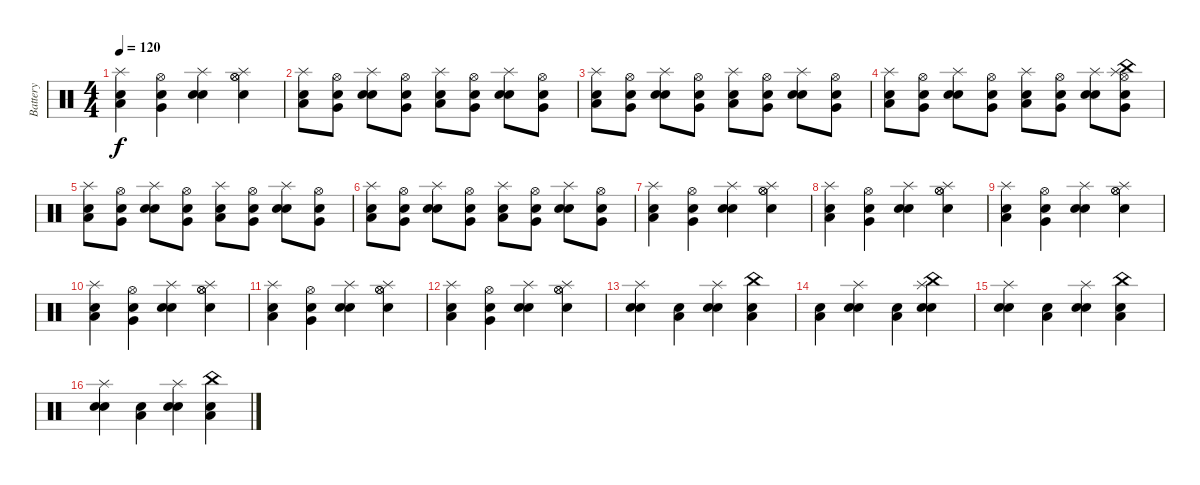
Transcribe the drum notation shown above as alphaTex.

\track ("Battery" "Battery") {instrument percussion}
\staff {score}
\articulation defaults
\ts (4 4)
\tempo 120
\clef neutral
\ks c
("Snare (hit) 2" "Low Floor Tom (hit)" "Splash (hit)").4{dy f} ("Snare (hit) 2" "Very Low Tom (hit)" "Hi-Hat (open)").4 ("Snare (hit) 2" "Electric Snare (hit)" "Splash (hit)").4 ("Snare (hit) 2" "Hi-Hat (open)" "Splash (hit)" "Hi-Hat (open)").4 |
("Snare (hit) 2" "Low Floor Tom (hit)" "Splash (hit)").8 ("Snare (hit) 2" "Very Low Tom (hit)" "Hi-Hat (open)").8 ("Snare (hit) 2" "Electric Snare (hit)" "Splash (hit)").8 ("Snare (hit) 2" "Very Low Tom (hit)" "Hi-Hat (open)").8 ("Snare (hit) 2" "Low Floor Tom (hit)" "Splash (hit)").8 ("Snare (hit) 2" "Very Low Tom (hit)" "Hi-Hat (open)").8 ("Snare (hit) 2" "Electric Snare (hit)" "Splash (hit)").8 ("Snare (hit) 2" "Very Low Tom (hit)" "Hi-Hat (open)").8 |
("Snare (hit) 2" "Low Floor Tom (hit)" "Splash (hit)").8 ("Snare (hit) 2" "Very Low Tom (hit)" "Hi-Hat (open)").8 ("Snare (hit) 2" "Electric Snare (hit)" "Splash (hit)").8 ("Snare (hit) 2" "Very Low Tom (hit)" "Hi-Hat (open)").8 ("Snare (hit) 2" "Low Floor Tom (hit)" "Splash (hit)").8 ("Snare (hit) 2" "Very Low Tom (hit)" "Hi-Hat (open)").8 ("Snare (hit) 2" "Electric Snare (hit)" "Splash (hit)").8 ("Snare (hit) 2" "Very Low Tom (hit)" "Hi-Hat (open)").8 |
("Snare (hit) 2" "Low Floor Tom (hit)" "Splash (hit)").8 ("Snare (hit) 2" "Very Low Tom (hit)" "Hi-Hat (open)").8 ("Snare (hit) 2" "Electric Snare (hit)" "Splash (hit)").8 ("Snare (hit) 2" "Very Low Tom (hit)" "Hi-Hat (open)").8 ("Snare (hit) 2" "Low Floor Tom (hit)" "Splash (hit)").8 ("Snare (hit) 2" "Very Low Tom (hit)" "Hi-Hat (open)").8 ("Snare (hit) 2" "Electric Snare (hit)" "Splash (hit)").8 ("Snare (hit) 2" "Very Low Tom (hit)" "Splash (hit)" "Hi-Hat (open)" "China (hit)").8 |
("Snare (hit) 2" "Low Floor Tom (hit)" "Splash (hit)").8 ("Snare (hit) 2" "Very Low Tom (hit)" "Hi-Hat (open)").8 ("Snare (hit) 2" "Electric Snare (hit)" "Splash (hit)").8 ("Snare (hit) 2" "Very Low Tom (hit)" "Hi-Hat (open)").8 ("Snare (hit) 2" "Low Floor Tom (hit)" "Splash (hit)").8 ("Snare (hit) 2" "Very Low Tom (hit)" "Hi-Hat (open)").8 ("Snare (hit) 2" "Electric Snare (hit)" "Splash (hit)").8 ("Snare (hit) 2" "Very Low Tom (hit)" "Hi-Hat (open)").8 |
("Snare (hit) 2" "Low Floor Tom (hit)" "Splash (hit)").8 ("Snare (hit) 2" "Very Low Tom (hit)" "Hi-Hat (open)").8 ("Snare (hit) 2" "Electric Snare (hit)" "Splash (hit)").8 ("Snare (hit) 2" "Very Low Tom (hit)" "Hi-Hat (open)").8 ("Snare (hit) 2" "Low Floor Tom (hit)" "Splash (hit)").8 ("Snare (hit) 2" "Very Low Tom (hit)" "Hi-Hat (open)").8 ("Snare (hit) 2" "Electric Snare (hit)" "Splash (hit)").8 ("Snare (hit) 2" "Very Low Tom (hit)" "Hi-Hat (open)").8 |
("Snare (hit) 2" "Low Floor Tom (hit)" "Splash (hit)").4 ("Snare (hit) 2" "Very Low Tom (hit)" "Hi-Hat (open)").4 ("Snare (hit) 2" "Electric Snare (hit)" "Splash (hit)").4 ("Snare (hit) 2" "Hi-Hat (open)" "Splash (hit)" "Hi-Hat (open)").4 |
("Snare (hit) 2" "Low Floor Tom (hit)" "Splash (hit)").4 ("Snare (hit) 2" "Very Low Tom (hit)" "Hi-Hat (open)").4 ("Snare (hit) 2" "Electric Snare (hit)" "Splash (hit)").4 ("Snare (hit) 2" "Hi-Hat (open)" "Splash (hit)" "Hi-Hat (open)").4 |
("Snare (hit) 2" "Low Floor Tom (hit)" "Splash (hit)").4 ("Snare (hit) 2" "Very Low Tom (hit)" "Hi-Hat (open)").4 ("Snare (hit) 2" "Electric Snare (hit)" "Splash (hit)").4 ("Snare (hit) 2" "Hi-Hat (open)" "Splash (hit)" "Hi-Hat (open)").4 |
("Snare (hit) 2" "Low Floor Tom (hit)" "Splash (hit)").4 ("Snare (hit) 2" "Very Low Tom (hit)" "Hi-Hat (open)").4 ("Snare (hit) 2" "Electric Snare (hit)" "Splash (hit)").4 ("Snare (hit) 2" "Hi-Hat (open)" "Splash (hit)" "Hi-Hat (open)").4 |
("Snare (hit) 2" "Low Floor Tom (hit)" "Splash (hit)").4 ("Snare (hit) 2" "Very Low Tom (hit)" "Hi-Hat (open)").4 ("Snare (hit) 2" "Electric Snare (hit)" "Splash (hit)").4 ("Snare (hit) 2" "Hi-Hat (open)" "Splash (hit)" "Hi-Hat (open)").4 |
("Snare (hit) 2" "Low Floor Tom (hit)" "Splash (hit)").4 ("Snare (hit) 2" "Very Low Tom (hit)" "Hi-Hat (open)").4 ("Snare (hit) 2" "Electric Snare (hit)" "Splash (hit)").4 ("Snare (hit) 2" "Hi-Hat (open)" "Splash (hit)" "Hi-Hat (open)").4 |
("Snare (hit) 2" "Electric Snare (hit)" "Splash (hit)").4 ("Snare (hit) 2" "Low Floor Tom (hit)").4 ("Snare (hit) 2" "Electric Snare (hit)" "Splash (hit)").4 ("Snare (hit) 2" "Low Floor Tom (hit)" "China (hit)").4 |
("Snare (hit) 2" "Low Floor Tom (hit)").4 ("Snare (hit) 2" "Electric Snare (hit)" "Splash (hit)").4 ("Snare (hit) 2" "Low Floor Tom (hit)").4 ("Snare (hit) 2" "Electric Snare (hit)" "Splash (hit)" "China (hit)").4 |
("Snare (hit) 2" "Electric Snare (hit)" "Splash (hit)").4 ("Snare (hit) 2" "Low Floor Tom (hit)").4 ("Snare (hit) 2" "Electric Snare (hit)" "Splash (hit)").4 ("Snare (hit) 2" "Low Floor Tom (hit)" "China (hit)").4 |
("Snare (hit) 2" "Electric Snare (hit)" "Splash (hit)").4 ("Snare (hit) 2" "Low Floor Tom (hit)").4 ("Snare (hit) 2" "Electric Snare (hit)" "Splash (hit)").4 ("Snare (hit) 2" "Low Floor Tom (hit)" "China (hit)").4
